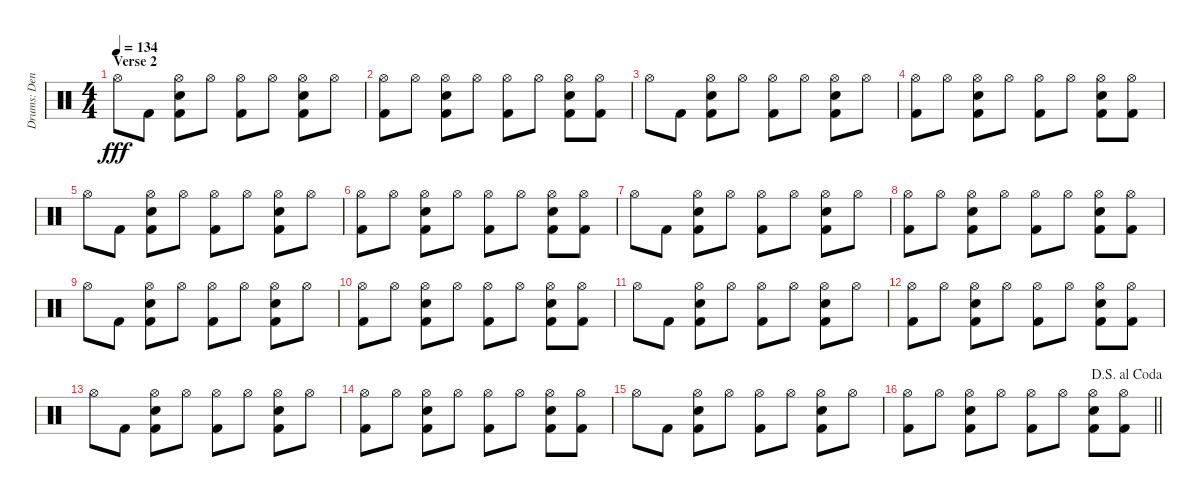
\track ("Drums: Denny" "Drums: Den") {instrument percussion}
\staff {score}
\articulation defaults
\ts (4 4)
\section ("" "Verse 2")
\tempo 134
\clef neutral
\ks c "Hi-Hat (open)".8{dy fff} "Kick (hit) 2".8
("Hi-Hat (open)" "Snare (hit) 2" "Kick (hit) 2").8 "Hi-Hat (open)".8 ("Hi-Hat (open)" "Kick (hit) 2").8 "Hi-Hat (open)".8 ("Hi-Hat (open)" "Snare (hit) 2" "Kick (hit) 2").8 "Hi-Hat (open)".8 |
("Hi-Hat (open)" "Kick (hit) 2").8 "Hi-Hat (open)".8 ("Hi-Hat (open)" "Snare (hit) 2" "Kick (hit) 2").8 "Hi-Hat (open)".8 ("Hi-Hat (open)" "Kick (hit) 2").8 "Hi-Hat (open)".8 ("Hi-Hat (open)" "Snare (hit) 2" "Kick (hit) 2").8 ("Hi-Hat (open)" "Kick (hit) 2").8 |
"Hi-Hat (open)".8 "Kick (hit) 2".8 ("Hi-Hat (open)" "Snare (hit) 2" "Kick (hit) 2").8 "Hi-Hat (open)".8 ("Hi-Hat (open)" "Kick (hit) 2").8 "Hi-Hat (open)".8 ("Hi-Hat (open)" "Snare (hit) 2" "Kick (hit) 2").8 "Hi-Hat (open)".8 |
("Hi-Hat (open)" "Kick (hit) 2").8 "Hi-Hat (open)".8 ("Hi-Hat (open)" "Snare (hit) 2" "Kick (hit) 2").8 "Hi-Hat (open)".8 ("Hi-Hat (open)" "Kick (hit) 2").8 "Hi-Hat (open)".8 ("Hi-Hat (open)" "Snare (hit) 2" "Kick (hit) 2").8 ("Hi-Hat (open)" "Kick (hit) 2").8 |
"Hi-Hat (open)".8 "Kick (hit) 2".8 ("Hi-Hat (open)" "Snare (hit) 2" "Kick (hit) 2").8 "Hi-Hat (open)".8 ("Hi-Hat (open)" "Kick (hit) 2").8 "Hi-Hat (open)".8 ("Hi-Hat (open)" "Snare (hit) 2" "Kick (hit) 2").8 "Hi-Hat (open)".8 |
("Hi-Hat (open)" "Kick (hit) 2").8 "Hi-Hat (open)".8 ("Hi-Hat (open)" "Snare (hit) 2" "Kick (hit) 2").8 "Hi-Hat (open)".8 ("Hi-Hat (open)" "Kick (hit) 2").8 "Hi-Hat (open)".8 ("Hi-Hat (open)" "Snare (hit) 2" "Kick (hit) 2").8 ("Hi-Hat (open)" "Kick (hit) 2").8 |
"Hi-Hat (open)".8 "Kick (hit) 2".8 ("Hi-Hat (open)" "Snare (hit) 2" "Kick (hit) 2").8 "Hi-Hat (open)".8 ("Hi-Hat (open)" "Kick (hit) 2").8 "Hi-Hat (open)".8 ("Hi-Hat (open)" "Snare (hit) 2" "Kick (hit) 2").8 "Hi-Hat (open)".8 |
("Hi-Hat (open)" "Kick (hit) 2").8 "Hi-Hat (open)".8 ("Hi-Hat (open)" "Snare (hit) 2" "Kick (hit) 2").8 "Hi-Hat (open)".8 ("Hi-Hat (open)" "Kick (hit) 2").8 "Hi-Hat (open)".8 ("Hi-Hat (open)" "Snare (hit) 2" "Kick (hit) 2").8 ("Hi-Hat (open)" "Kick (hit) 2").8 |
"Hi-Hat (open)".8 "Kick (hit) 2".8 ("Hi-Hat (open)" "Snare (hit) 2" "Kick (hit) 2").8 "Hi-Hat (open)".8 ("Hi-Hat (open)" "Kick (hit) 2").8 "Hi-Hat (open)".8 ("Hi-Hat (open)" "Snare (hit) 2" "Kick (hit) 2").8 "Hi-Hat (open)".8 |
("Hi-Hat (open)" "Kick (hit) 2").8 "Hi-Hat (open)".8 ("Hi-Hat (open)" "Snare (hit) 2" "Kick (hit) 2").8 "Hi-Hat (open)".8 ("Hi-Hat (open)" "Kick (hit) 2").8 "Hi-Hat (open)".8 ("Hi-Hat (open)" "Snare (hit) 2" "Kick (hit) 2").8 ("Hi-Hat (open)" "Kick (hit) 2").8 |
"Hi-Hat (open)".8 "Kick (hit) 2".8 ("Hi-Hat (open)" "Snare (hit) 2" "Kick (hit) 2").8 "Hi-Hat (open)".8 ("Hi-Hat (open)" "Kick (hit) 2").8 "Hi-Hat (open)".8 ("Hi-Hat (open)" "Snare (hit) 2" "Kick (hit) 2").8 "Hi-Hat (open)".8 |
("Hi-Hat (open)" "Kick (hit) 2").8 "Hi-Hat (open)".8 ("Hi-Hat (open)" "Snare (hit) 2" "Kick (hit) 2").8 "Hi-Hat (open)".8 ("Hi-Hat (open)" "Kick (hit) 2").8 "Hi-Hat (open)".8 ("Hi-Hat (open)" "Snare (hit) 2" "Kick (hit) 2").8 ("Hi-Hat (open)" "Kick (hit) 2").8 |
"Hi-Hat (open)".8 "Kick (hit) 2".8 ("Hi-Hat (open)" "Snare (hit) 2" "Kick (hit) 2").8 "Hi-Hat (open)".8 ("Hi-Hat (open)" "Kick (hit) 2").8 "Hi-Hat (open)".8 ("Hi-Hat (open)" "Snare (hit) 2" "Kick (hit) 2").8 "Hi-Hat (open)".8 |
("Hi-Hat (open)" "Kick (hit) 2").8 "Hi-Hat (open)".8 ("Hi-Hat (open)" "Snare (hit) 2" "Kick (hit) 2").8 "Hi-Hat (open)".8 ("Hi-Hat (open)" "Kick (hit) 2").8 "Hi-Hat (open)".8 ("Hi-Hat (open)" "Snare (hit) 2" "Kick (hit) 2").8 ("Hi-Hat (open)" "Kick (hit) 2").8 |
"Hi-Hat (open)".8 "Kick (hit) 2".8 ("Hi-Hat (open)" "Snare (hit) 2" "Kick (hit) 2").8 "Hi-Hat (open)".8 ("Hi-Hat (open)" "Kick (hit) 2").8 "Hi-Hat (open)".8 ("Hi-Hat (open)" "Snare (hit) 2" "Kick (hit) 2").8 "Hi-Hat (open)".8 |
\jump dalsegnoalcoda
\barLineRight lightlight
("Hi-Hat (open)" "Kick (hit) 2").8 "Hi-Hat (open)".8 ("Hi-Hat (open)" "Snare (hit) 2" "Kick (hit) 2").8 "Hi-Hat (open)".8 ("Hi-Hat (open)" "Kick (hit) 2").8 "Hi-Hat (open)".8 ("Hi-Hat (open)" "Snare (hit) 2" "Kick (hit) 2").8 ("Hi-Hat (open)" "Kick (hit) 2").8
